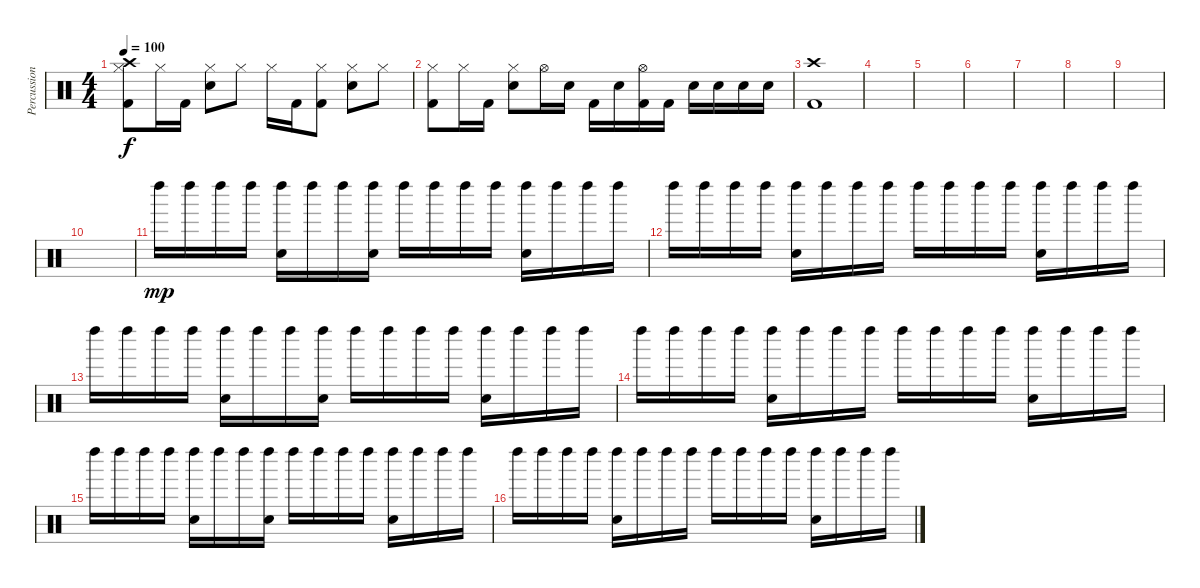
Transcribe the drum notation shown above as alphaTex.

\track ("Percussion" "Percussion") {instrument percussion}
\staff {score}
\articulation defaults
\ts (4 4)
\tempo 100
\clef neutral
\ks c
("Crash high (hit)" "Hi-Hat (closed)" "Kick (hit) 2").8{dy f} "Hi-Hat (closed)".16 "Kick (hit) 2".16 ("Hi-Hat (closed)" "Electric Snare (hit)").8 "Hi-Hat (closed)".8 "Hi-Hat (closed)".16 "Kick (hit) 2".16 ("Hi-Hat (closed)" "Kick (hit) 2").8 ("Hi-Hat (closed)" "Electric Snare (hit)").8 "Hi-Hat (closed)".8 |
("Hi-Hat (closed)" "Kick (hit) 2").8 "Hi-Hat (closed)".16 "Kick (hit) 2".16 ("Hi-Hat (closed)" "Electric Snare (hit)").8 "Hi-Hat (open)".16 "Electric Snare (hit)".16 "Kick (hit) 2".16 "Electric Snare (hit)".16 ("Hi-Hat (open)" "Kick (hit) 2").16 "Kick (hit) 2".16 "Electric Snare (hit)".16 "Electric Snare (hit)".16 "Electric Snare (hit)".16 "Electric Snare (hit)".16 |
("Crash high (hit)" "Kick (hit) 2").1 |
|
|
|
|
|
|
|
"Left Maraca (hit)".16{dy mp} "Left Maraca (hit)".16 "Left Maraca (hit)".16 "Left Maraca (hit)".16 ("Electric Snare (hit)" "Left Maraca (hit)").16 "Left Maraca (hit)".16 "Left Maraca (hit)".16 ("Electric Snare (hit)" "Left Maraca (hit)").16 "Left Maraca (hit)".16 "Left Maraca (hit)".16 "Left Maraca (hit)".16 "Left Maraca (hit)".16 ("Electric Snare (hit)" "Left Maraca (hit)").16 "Left Maraca (hit)".16 "Left Maraca (hit)".16 "Left Maraca (hit)".16 |
"Left Maraca (hit)".16 "Left Maraca (hit)".16 "Left Maraca (hit)".16 "Left Maraca (hit)".16 ("Electric Snare (hit)" "Left Maraca (hit)").16 "Left Maraca (hit)".16 "Left Maraca (hit)".16 "Left Maraca (hit)".16 "Left Maraca (hit)".16 "Left Maraca (hit)".16 "Left Maraca (hit)".16 "Left Maraca (hit)".16 ("Electric Snare (hit)" "Left Maraca (hit)").16 "Left Maraca (hit)".16 "Left Maraca (hit)".16 "Left Maraca (hit)".16 |
"Left Maraca (hit)".16 "Left Maraca (hit)".16 "Left Maraca (hit)".16 "Left Maraca (hit)".16 ("Electric Snare (hit)" "Left Maraca (hit)").16 "Left Maraca (hit)".16 "Left Maraca (hit)".16 ("Electric Snare (hit)" "Left Maraca (hit)").16 "Left Maraca (hit)".16 "Left Maraca (hit)".16 "Left Maraca (hit)".16 "Left Maraca (hit)".16 ("Electric Snare (hit)" "Left Maraca (hit)").16 "Left Maraca (hit)".16 "Left Maraca (hit)".16 "Left Maraca (hit)".16 |
"Left Maraca (hit)".16 "Left Maraca (hit)".16 "Left Maraca (hit)".16 "Left Maraca (hit)".16 ("Electric Snare (hit)" "Left Maraca (hit)").16 "Left Maraca (hit)".16 "Left Maraca (hit)".16 "Left Maraca (hit)".16 "Left Maraca (hit)".16 "Left Maraca (hit)".16 "Left Maraca (hit)".16 "Left Maraca (hit)".16 ("Electric Snare (hit)" "Left Maraca (hit)").16 "Left Maraca (hit)".16 "Left Maraca (hit)".16 "Left Maraca (hit)".16 |
"Left Maraca (hit)".16 "Left Maraca (hit)".16 "Left Maraca (hit)".16 "Left Maraca (hit)".16 ("Electric Snare (hit)" "Left Maraca (hit)").16 "Left Maraca (hit)".16 "Left Maraca (hit)".16 ("Electric Snare (hit)" "Left Maraca (hit)").16 "Left Maraca (hit)".16 "Left Maraca (hit)".16 "Left Maraca (hit)".16 "Left Maraca (hit)".16 ("Electric Snare (hit)" "Left Maraca (hit)").16 "Left Maraca (hit)".16 "Left Maraca (hit)".16 "Left Maraca (hit)".16 |
"Left Maraca (hit)".16 "Left Maraca (hit)".16 "Left Maraca (hit)".16 "Left Maraca (hit)".16 ("Electric Snare (hit)" "Left Maraca (hit)").16 "Left Maraca (hit)".16 "Left Maraca (hit)".16 "Left Maraca (hit)".16 "Left Maraca (hit)".16 "Left Maraca (hit)".16 "Left Maraca (hit)".16 "Left Maraca (hit)".16 ("Electric Snare (hit)" "Left Maraca (hit)").16 "Left Maraca (hit)".16 "Left Maraca (hit)".16 "Left Maraca (hit)".16
